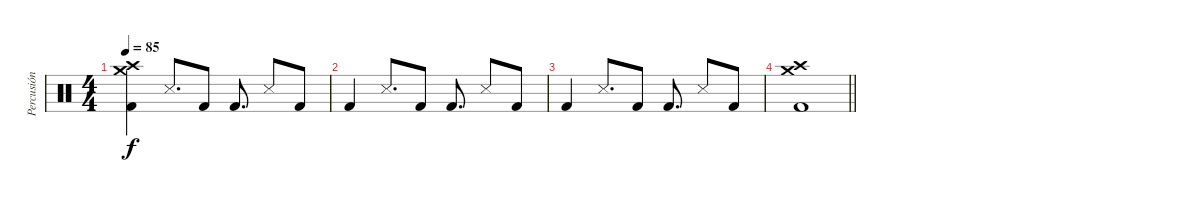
\track ("Percusión" "Percusión") {instrument percussion}
\staff {score}
\articulation defaults
\ts (4 4)
\tempo 85
\clef neutral
\ks c
("Crash high (hit)" "Crash medium (hit)" "Kick (hit) 2").4{dy f} "Metronome (hit)".8{d} "Kick (hit) 2".8 "Kick (hit) 2".8{d} "Metronome (hit)".8 "Kick (hit) 2".8 |
"Kick (hit) 2".4 "Metronome (hit)".8{d} "Kick (hit) 2".8 "Kick (hit) 2".8{d} "Metronome (hit)".8 "Kick (hit) 2".8 |
"Kick (hit) 2".4 "Metronome (hit)".8{d} "Kick (hit) 2".8 "Kick (hit) 2".8{d} "Metronome (hit)".8 "Kick (hit) 2".8 |
\barLineRight lightlight
("Crash medium (hit)" "Crash high (hit)" "Kick (hit) 2").1
